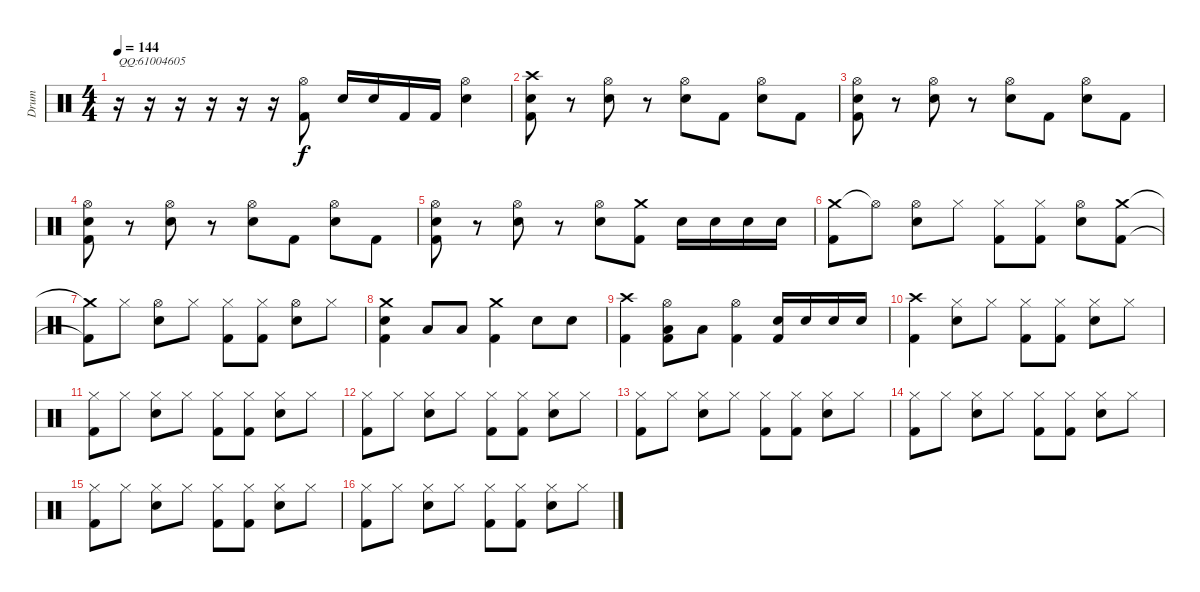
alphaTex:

\track ("Drum" "Drum") {instrument percussion}
\staff {score}
\articulation defaults
\ts (4 4)
\tempo 144
\clef neutral
\ks c
r.16{txt "QQ:61004605" dy f} r.16 r.16 r.16 r.16 r.16 ("Hi-Hat (open)" "Kick (hit) 2").8 "Electric Snare (hit)".16 "Electric Snare (hit)".16 "Kick (hit) 2".16 "Kick (hit) 2".16 ("Hi-Hat (open)" "Electric Snare (hit)").4 |
("Crash high (hit)" "Electric Snare (hit)" "Kick (hit) 2").8 r.8 ("Hi-Hat (open)" "Electric Snare (hit)").8 r.8 ("Hi-Hat (open)" "Electric Snare (hit)").8 "Kick (hit) 2".8 ("Hi-Hat (open)" "Electric Snare (hit)").8 "Kick (hit) 2".8 |
("Hi-Hat (open)" "Electric Snare (hit)" "Kick (hit) 2").8 r.8 ("Hi-Hat (open)" "Electric Snare (hit)").8 r.8 ("Hi-Hat (open)" "Electric Snare (hit)").8 "Kick (hit) 2".8 ("Hi-Hat (open)" "Electric Snare (hit)").8 "Kick (hit) 2".8 |
("Hi-Hat (open)" "Electric Snare (hit)" "Kick (hit) 2").8 r.8 ("Hi-Hat (open)" "Electric Snare (hit)").8 r.8 ("Hi-Hat (open)" "Electric Snare (hit)").8 "Kick (hit) 2".8 ("Hi-Hat (open)" "Electric Snare (hit)").8 "Kick (hit) 2".8 |
("Hi-Hat (open)" "Electric Snare (hit)" "Kick (hit) 2").8 r.8 ("Hi-Hat (open)" "Electric Snare (hit)").8 r.8 ("Hi-Hat (open)" "Electric Snare (hit)").8 ("Crash medium (hit)" "Kick (hit) 2").8 "Electric Snare (hit)".16 "Electric Snare (hit)".16 "Snare (hit) 2".16 "Snare (hit) 2".16 |
("Crash medium (hit)" "Kick (hit) 2").8 "Hi-Hat (open)"{t}.8 ("Hi-Hat (open)" "Electric Snare (hit)").8 "Hi-Hat (closed)".8 ("Hi-Hat (closed)" "Kick (hit) 2").8 ("Hi-Hat (closed)" "Kick (hit) 2").8 ("Hi-Hat (open)" "Electric Snare (hit)").8 ("Crash medium (hit)" "Kick (hit) 2").8 |
("Crash medium (hit)"{t} "Kick (hit) 2"{t}).8 "Hi-Hat (closed)".8 ("Hi-Hat (open)" "Electric Snare (hit)").8 "Hi-Hat (closed)".8 ("Hi-Hat (closed)" "Kick (hit) 2").8 ("Hi-Hat (closed)" "Kick (hit) 2").8 ("Hi-Hat (open)" "Electric Snare (hit)").8 "Hi-Hat (closed)".8 |
("Crash medium (hit)" "Electric Snare (hit)" "Kick (hit) 2").4 "Low Tom (hit)".8 "Low Floor Tom (hit)".8 ("Crash medium (hit)" "Kick (hit) 2").4 "Electric Snare (hit)".8 "Electric Snare (hit)".8 |
("Crash high (hit)" "Kick (hit) 2").4 ("Hi-Hat (open)" "Low Floor Tom (hit)" "Kick (hit) 2").8 "Low Tom (hit)".8 ("Hi-Hat (open)" "Kick (hit) 2").4 ("Electric Snare (hit)" "Kick (hit) 2").16 "Electric Snare (hit)".16 "Electric Snare (hit)".16 "Electric Snare (hit)".16 |
("Crash high (hit)" "Kick (hit) 2").4 ("Hi-Hat (closed)" "Electric Snare (hit)").8 "Hi-Hat (closed)".8 ("Hi-Hat (closed)" "Kick (hit) 2").8 ("Hi-Hat (closed)" "Kick (hit) 2").8 ("Hi-Hat (closed)" "Electric Snare (hit)").8 "Hi-Hat (closed)".8 |
("Hi-Hat (closed)" "Kick (hit) 2").8 "Hi-Hat (closed)".8 ("Hi-Hat (closed)" "Electric Snare (hit)").8 "Hi-Hat (closed)".8 ("Hi-Hat (closed)" "Kick (hit) 2").8 ("Hi-Hat (closed)" "Kick (hit) 2").8 ("Hi-Hat (closed)" "Electric Snare (hit)").8 "Hi-Hat (closed)".8 |
("Hi-Hat (closed)" "Kick (hit) 2").8 "Hi-Hat (closed)".8 ("Hi-Hat (closed)" "Electric Snare (hit)").8 "Hi-Hat (closed)".8 ("Hi-Hat (closed)" "Kick (hit) 2").8 ("Hi-Hat (closed)" "Kick (hit) 2").8 ("Hi-Hat (closed)" "Electric Snare (hit)").8 "Hi-Hat (closed)".8 |
("Hi-Hat (closed)" "Kick (hit) 2").8 "Hi-Hat (closed)".8 ("Hi-Hat (closed)" "Electric Snare (hit)").8 "Hi-Hat (closed)".8 ("Hi-Hat (closed)" "Kick (hit) 2").8 ("Hi-Hat (closed)" "Kick (hit) 2").8 ("Hi-Hat (closed)" "Electric Snare (hit)").8 "Hi-Hat (closed)".8 |
("Hi-Hat (closed)" "Kick (hit) 2").8 "Hi-Hat (closed)".8 ("Hi-Hat (closed)" "Electric Snare (hit)").8 "Hi-Hat (closed)".8 ("Hi-Hat (closed)" "Kick (hit) 2").8 ("Hi-Hat (closed)" "Kick (hit) 2").8 ("Hi-Hat (closed)" "Electric Snare (hit)").8 "Hi-Hat (closed)".8 |
("Hi-Hat (closed)" "Kick (hit) 2").8 "Hi-Hat (closed)".8 ("Hi-Hat (closed)" "Electric Snare (hit)").8 "Hi-Hat (closed)".8 ("Hi-Hat (closed)" "Kick (hit) 2").8 ("Hi-Hat (closed)" "Kick (hit) 2").8 ("Hi-Hat (closed)" "Electric Snare (hit)").8 "Hi-Hat (closed)".8 |
("Hi-Hat (closed)" "Kick (hit) 2").8 "Hi-Hat (closed)".8 ("Hi-Hat (closed)" "Electric Snare (hit)").8 "Hi-Hat (closed)".8 ("Hi-Hat (closed)" "Kick (hit) 2").8 ("Hi-Hat (closed)" "Kick (hit) 2").8 ("Hi-Hat (closed)" "Electric Snare (hit)").8 "Hi-Hat (closed)".8
